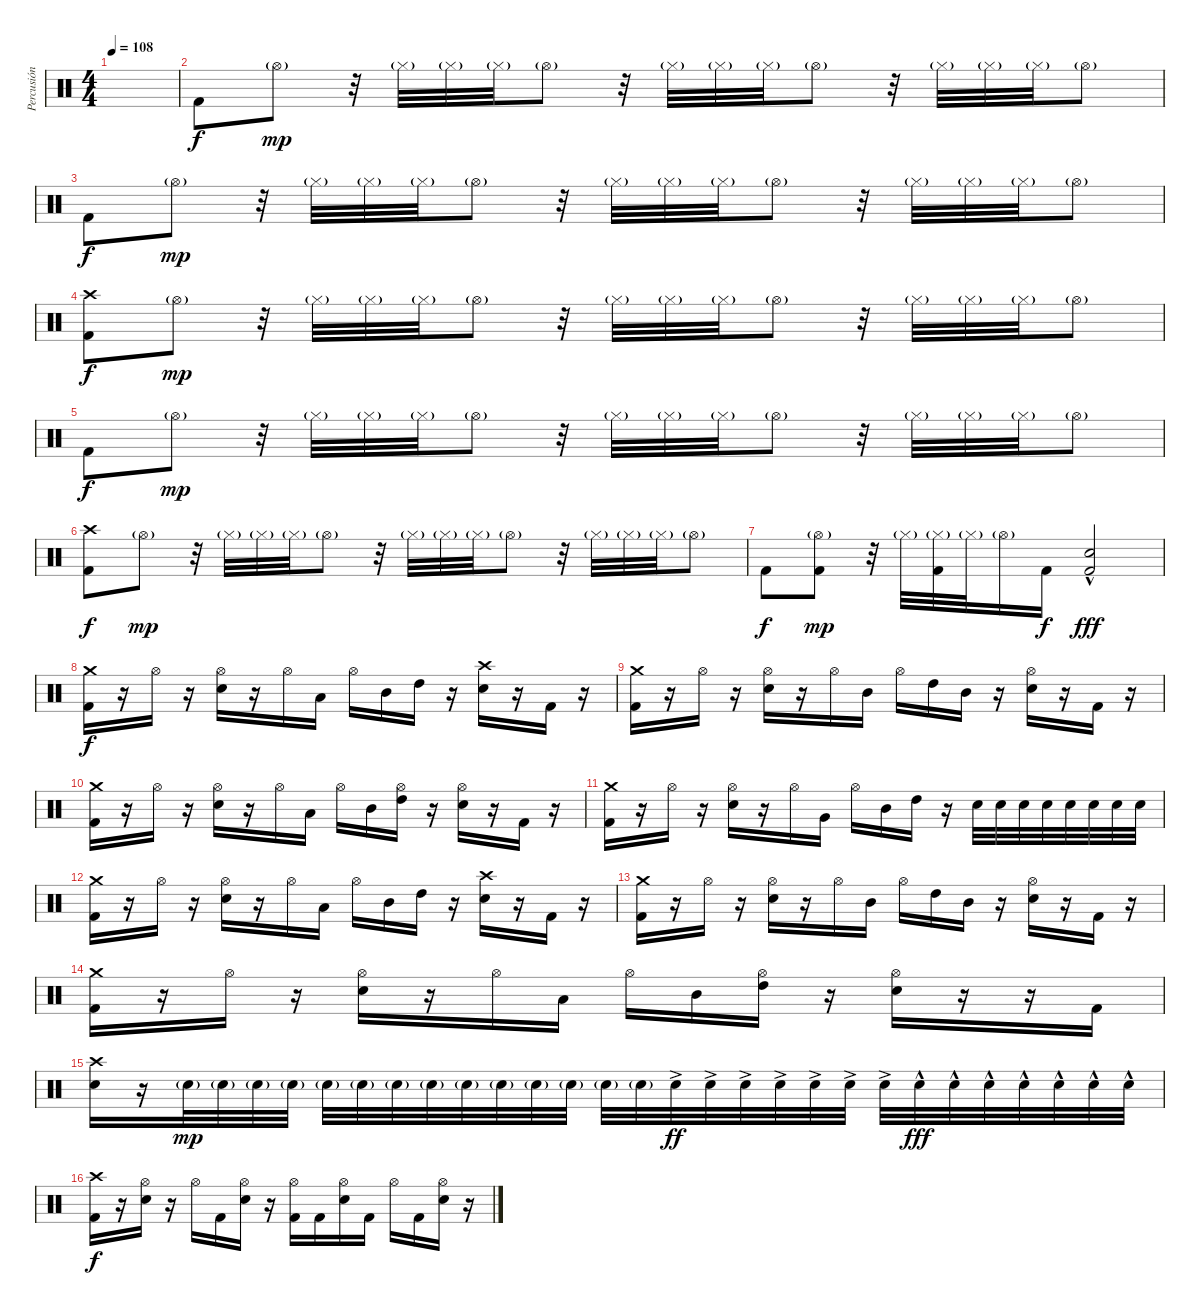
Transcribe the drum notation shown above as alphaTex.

\track ("Percusión" "Percusión") {instrument percussion}
\staff {score}
\articulation defaults
\ts (4 4)
\tempo 108
\clef neutral
\ks c
|
"Kick (hit) 2".8 "Hi-Hat (open)"{g}.8{dy mp} r.32 "Hi-Hat (closed)"{g}.32 "Hi-Hat (closed)"{g}.32 "Hi-Hat (closed)"{g}.32 "Hi-Hat (open)"{g}.8 r.32 "Hi-Hat (closed)"{g}.32 "Hi-Hat (closed)"{g}.32 "Hi-Hat (closed)"{g}.32 "Hi-Hat (open)"{g}.8 r.32 "Hi-Hat (closed)"{g}.32 "Hi-Hat (closed)"{g}.32 "Hi-Hat (closed)"{g}.32 "Hi-Hat (open)"{g}.8 |
"Kick (hit) 2".8{dy f} "Hi-Hat (open)"{g}.8{dy mp} r.32 "Hi-Hat (closed)"{g}.32 "Hi-Hat (closed)"{g}.32 "Hi-Hat (closed)"{g}.32 "Hi-Hat (open)"{g}.8 r.32 "Hi-Hat (closed)"{g}.32 "Hi-Hat (closed)"{g}.32 "Hi-Hat (closed)"{g}.32 "Hi-Hat (open)"{g}.8 r.32 "Hi-Hat (closed)"{g}.32 "Hi-Hat (closed)"{g}.32 "Hi-Hat (closed)"{g}.32 "Hi-Hat (open)"{g}.8 |
("Crash high (hit)" "Kick (hit) 2").8{dy f} "Hi-Hat (open)"{g}.8{dy mp} r.32 "Hi-Hat (closed)"{g}.32 "Hi-Hat (closed)"{g}.32 "Hi-Hat (closed)"{g}.32 "Hi-Hat (open)"{g}.8 r.32 "Hi-Hat (closed)"{g}.32 "Hi-Hat (closed)"{g}.32 "Hi-Hat (closed)"{g}.32 "Hi-Hat (open)"{g}.8 r.32 "Hi-Hat (closed)"{g}.32 "Hi-Hat (closed)"{g}.32 "Hi-Hat (closed)"{g}.32 "Hi-Hat (open)"{g}.8 |
"Kick (hit) 2".8{dy f} "Hi-Hat (open)"{g}.8{dy mp} r.32 "Hi-Hat (closed)"{g}.32 "Hi-Hat (closed)"{g}.32 "Hi-Hat (closed)"{g}.32 "Hi-Hat (open)"{g}.8 r.32 "Hi-Hat (closed)"{g}.32 "Hi-Hat (closed)"{g}.32 "Hi-Hat (closed)"{g}.32 "Hi-Hat (open)"{g}.8 r.32 "Hi-Hat (closed)"{g}.32 "Hi-Hat (closed)"{g}.32 "Hi-Hat (closed)"{g}.32 "Hi-Hat (open)"{g}.8 |
("Crash high (hit)" "Kick (hit) 2").8{dy f} "Hi-Hat (open)"{g}.8{dy mp} r.32 "Hi-Hat (closed)"{g}.32 "Hi-Hat (closed)"{g}.32 "Hi-Hat (closed)"{g}.32 "Hi-Hat (open)"{g}.8 r.32 "Hi-Hat (closed)"{g}.32 "Hi-Hat (closed)"{g}.32 "Hi-Hat (closed)"{g}.32 "Hi-Hat (open)"{g}.8 r.32 "Hi-Hat (closed)"{g}.32 "Hi-Hat (closed)"{g}.32 "Hi-Hat (closed)"{g}.32 "Hi-Hat (open)"{g}.8 |
"Kick (hit) 2".8{dy f} ("Hi-Hat (open)"{g} "Kick (hit) 2").8{dy mp} r.32 "Hi-Hat (closed)"{g}.32 ("Hi-Hat (closed)"{g} "Kick (hit) 2").32 "Hi-Hat (closed)"{g}.32 "Hi-Hat (open)"{g}.16 "Kick (hit) 2".16{dy f} ("Electric Snare (hit)"{hac} "Kick (hit) 2").2{dy fff} |
("Crash medium (hit)" "Kick (hit) 2").16{dy f} r.16 "Hi-Hat (open)".16 r.16 ("Hi-Hat (open)" "Electric Snare (hit)").16 r.16 "Hi-Hat (open)".16 "Low Tom (hit)".16 "Hi-Hat (open)".16 "Mid Tom (hit)".16 "High Tom (hit)".16 r.16 ("Crash high (hit)" "Electric Snare (hit)").16 r.16 "Kick (hit) 2".16 r.16 |
("Crash medium (hit)" "Kick (hit) 2").16 r.16 "Hi-Hat (open)".16 r.16 ("Hi-Hat (open)" "Electric Snare (hit)").16 r.16 "Hi-Hat (open)".16 "Mid Tom (hit)".16 "Hi-Hat (open)".16 "High Tom (hit)".16 "Mid Tom (hit)".16 r.16 ("Hi-Hat (open)" "Electric Snare (hit)").16 r.16 "Kick (hit) 2".16 r.16 |
("Crash medium (hit)" "Kick (hit) 2").16 r.16 "Hi-Hat (open)".16 r.16 ("Hi-Hat (open)" "Electric Snare (hit)").16 r.16 "Hi-Hat (open)".16 "Low Tom (hit)".16 "Hi-Hat (open)".16 "Mid Tom (hit)".16 ("Hi-Hat (open)" "High Tom (hit)").16 r.16 ("Hi-Hat (open)" "Electric Snare (hit)").16 r.16 "Kick (hit) 2".16 r.16 |
("Crash medium (hit)" "Kick (hit) 2").16 r.16 "Hi-Hat (open)".16 r.16 ("Hi-Hat (open)" "Electric Snare (hit)").16 r.16 "Hi-Hat (open)".16 "Very Low Tom (hit)".16 "Hi-Hat (open)".16 "Mid Tom (hit)".16 "High Tom (hit)".16 r.16 "Electric Snare (hit)".32 "Electric Snare (hit)".32 "Electric Snare (hit)".32 "Electric Snare (hit)".32 "Electric Snare (hit)".32 "Electric Snare (hit)".32 "Electric Snare (hit)".32 "Electric Snare (hit)".32 |
("Crash medium (hit)" "Kick (hit) 2").16 r.16 "Hi-Hat (open)".16 r.16 ("Hi-Hat (open)" "Electric Snare (hit)").16 r.16 "Hi-Hat (open)".16 "Low Tom (hit)".16 "Hi-Hat (open)".16 "Mid Tom (hit)".16 "High Tom (hit)".16 r.16 ("Crash high (hit)" "Electric Snare (hit)").16 r.16 "Kick (hit) 2".16 r.16 |
("Crash medium (hit)" "Kick (hit) 2").16 r.16 "Hi-Hat (open)".16 r.16 ("Hi-Hat (open)" "Electric Snare (hit)").16 r.16 "Hi-Hat (open)".16 "Mid Tom (hit)".16 "Hi-Hat (open)".16 "High Tom (hit)".16 "Mid Tom (hit)".16 r.16 ("Hi-Hat (open)" "Electric Snare (hit)").16 r.16 "Kick (hit) 2".16 r.16 |
("Crash medium (hit)" "Kick (hit) 2").16 r.16 "Hi-Hat (open)".16 r.16 ("Hi-Hat (open)" "Electric Snare (hit)").16 r.16 "Hi-Hat (open)".16 "Low Tom (hit)".16 "Hi-Hat (open)".16 "Mid Tom (hit)".16 ("Hi-Hat (open)" "High Tom (hit)").16 r.16 ("Hi-Hat (open)" "Electric Snare (hit)").16 r.16 r.16 "Kick (hit) 2".16 |
("Crash high (hit)" "Electric Snare (hit)").16 r.16 "Electric Snare (hit)"{g}.32{dy mp} "Electric Snare (hit)"{g}.32 "Electric Snare (hit)"{g}.32 "Electric Snare (hit)"{g}.32 "Electric Snare (hit)"{g}.32 "Electric Snare (hit)"{g}.32 "Electric Snare (hit)"{g}.32 "Electric Snare (hit)"{g}.32 "Electric Snare (hit)"{g}.32 "Electric Snare (hit)"{g}.32 "Electric Snare (hit)"{g}.32 "Electric Snare (hit)"{g}.32 "Electric Snare (hit)"{g}.32 "Electric Snare (hit)"{g}.32 "Electric Snare (hit)"{ac}.32{dy ff} "Electric Snare (hit)"{ac}.32 "Electric Snare (hit)"{ac}.32 "Electric Snare (hit)"{ac}.32 "Electric Snare (hit)"{ac}.32 "Electric Snare (hit)"{ac}.32 "Electric Snare (hit)"{ac}.32 "Electric Snare (hit)"{hac}.32{dy fff} "Electric Snare (hit)"{hac}.32 "Electric Snare (hit)"{hac}.32 "Electric Snare (hit)"{hac}.32 "Electric Snare (hit)"{hac}.32 "Electric Snare (hit)"{hac}.32 "Electric Snare (hit)"{hac}.32 |
("Crash high (hit)" "Kick (hit) 2").16{dy f} r.16 ("Hi-Hat (open)" "Electric Snare (hit)").16 r.16 "Hi-Hat (open)".16 "Kick (hit) 2".16 ("Hi-Hat (open)" "Electric Snare (hit)").16 r.16 ("Hi-Hat (open)" "Kick (hit) 2").16 "Kick (hit) 2".16 ("Hi-Hat (open)" "Electric Snare (hit)").16 "Kick (hit) 2".16 "Hi-Hat (open)".16 "Kick (hit) 2".16 ("Hi-Hat (open)" "Electric Snare (hit)").16 r.16
